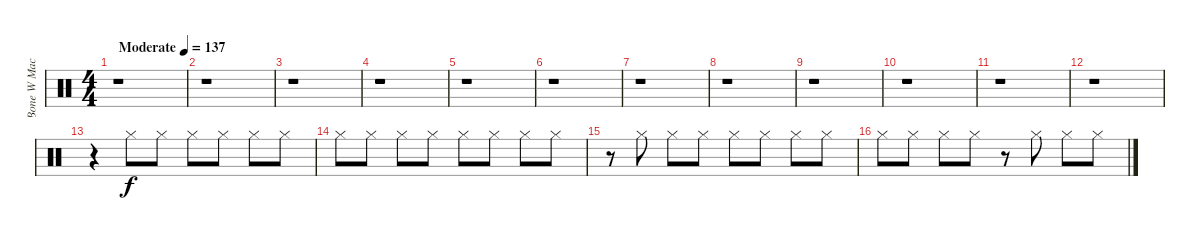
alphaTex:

\track ("Bone W Machine Cimbals" "Bone W Mac") {instrument percussion}
\staff {score}
\articulation defaults
\ts (4 4)
\tempo (137 "Moderate")
\clef neutral
\ks c
r.1{dy f} |
r.1 |
r.1 |
r.1 |
r.1 |
r.1 |
r.1 |
r.1 |
r.1 |
r.1 |
r.1 |
r.1 |
r.4 "Hi-Hat (closed)".8 "Hi-Hat (closed)".8 "Hi-Hat (closed)".8 "Hi-Hat (closed)".8 "Hi-Hat (closed)".8 "Hi-Hat (closed)".8 |
"Hi-Hat (closed)".8 "Hi-Hat (closed)".8 "Hi-Hat (closed)".8 "Hi-Hat (closed)".8 "Hi-Hat (closed)".8 "Hi-Hat (closed)".8 "Hi-Hat (closed)".8 "Hi-Hat (closed)".8 |
r.8 "Hi-Hat (closed)".8 "Hi-Hat (closed)".8 "Hi-Hat (closed)".8 "Hi-Hat (closed)".8 "Hi-Hat (closed)".8 "Hi-Hat (closed)".8 "Hi-Hat (closed)".8 |
"Hi-Hat (closed)".8 "Hi-Hat (closed)".8 "Hi-Hat (closed)".8 "Hi-Hat (closed)".8 r.8 "Hi-Hat (closed)".8 "Hi-Hat (closed)".8 "Hi-Hat (closed)".8
